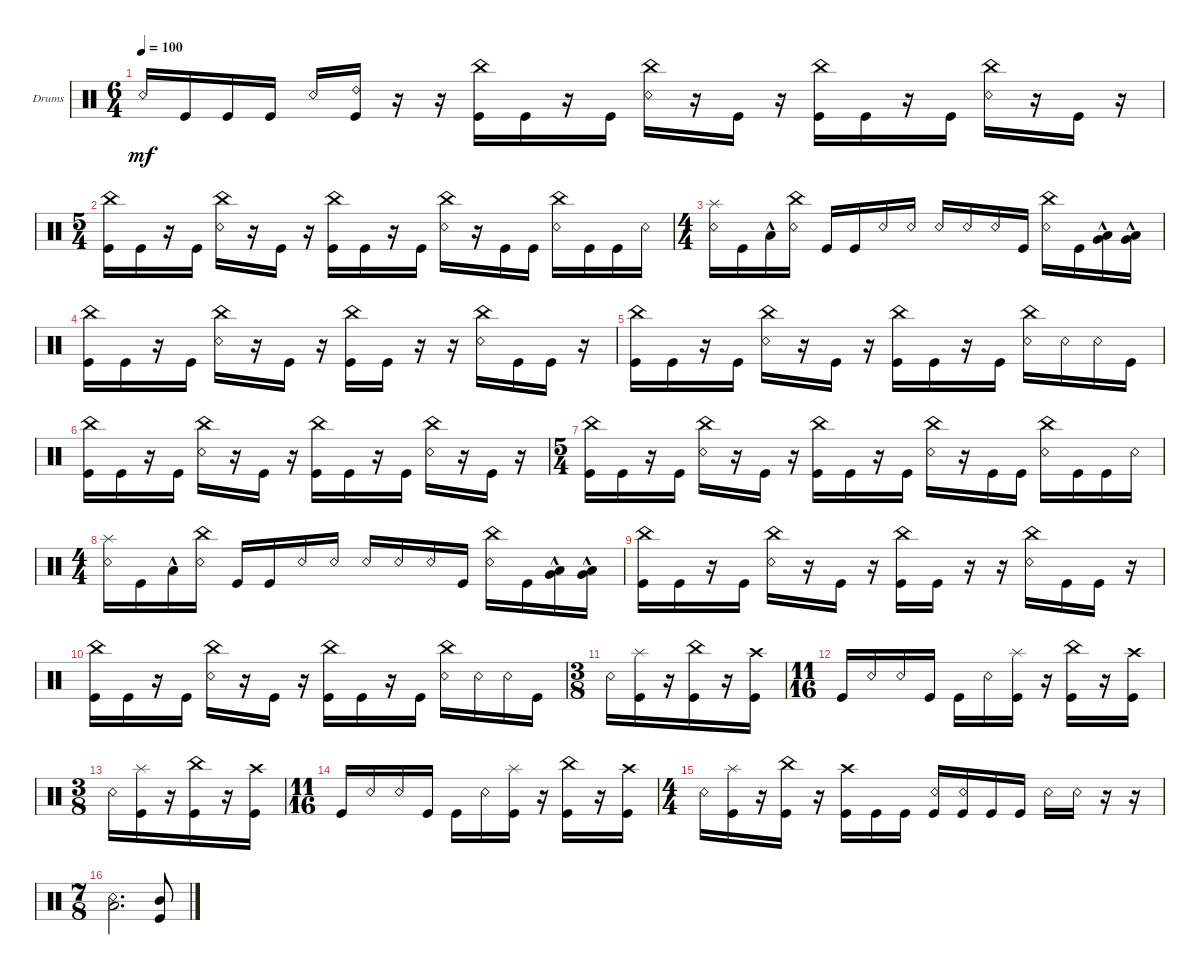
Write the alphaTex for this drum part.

\defaultSystemsLayout 4
\bracketExtendMode groupsimilarinstruments
\firstSystemTrackNameOrientation horizontal
\otherSystemsTrackNameOrientation horizontal
\track ("Drumkit" "Drums") {instrument percussion}
\staff {score}
\articulation defaults
\ts (6 4)
\tempo 100
\clef neutral
\ks c "Snare (rim shot)".16{dy mf} "Kick (hit)".16 "Kick (hit)".16 "Kick (hit)".16 "Snare (rim shot)".16
("Kick (hit)" "Ride (bell) 2").16 r.16 r.16 ("China (hit)" "Kick (hit)").16 "Kick (hit)".16 r.16 "Kick (hit)".16 ("Snare (rim shot)" "China (hit)").16 r.16 "Kick (hit)".16 r.16 ("Kick (hit)" "China (hit)").16 "Kick (hit)".16 r.16 "Kick (hit)".16 ("Snare (rim shot)" "China (hit)").16 r.16 "Kick (hit)".16 r.16 |
\ts (5 4)
("China (hit)" "Kick (hit)").16 "Kick (hit)".16 r.16 "Kick (hit)".16 ("Snare (rim shot)" "China (hit)").16 r.16 "Kick (hit)".16 r.16 ("Kick (hit)" "China (hit)").16 "Kick (hit)".16 r.16 "Kick (hit)".16 ("Snare (rim shot)" "China (hit)").16 r.16 "Kick (hit)".16 "Kick (hit)".16 ("Snare (rim shot)" "China (hit)").16 "Kick (hit)".16 "Kick (hit)".16 "Snare (rim shot)".16 |
\ts (4 4)
("Snare (rim shot)" "Splash (hit)").16 "Kick (hit)".16 "Low Tom (hit)"{hac}.16 ("Snare (rim shot)" "China (hit)").16 "Kick (hit)".16 "Kick (hit)".16 "Snare (rim shot)".16 "Snare (rim shot)".16 "Snare (rim shot)".16 "Snare (rim shot)".16 "Snare (rim shot)".16 "Kick (hit)".16 ("Snare (rim shot)" "China (hit)").16 "Kick (hit)".16 ("Low Tom (hit)"{hac} "Very Low Tom (hit)").16 ("Low Tom (hit)"{hac} "Very Low Tom (hit)"{hac}).16 |
("China (hit)" "Kick (hit)").16 "Kick (hit)".16 r.16 "Kick (hit)".16 ("Snare (rim shot)" "China (hit)").16 r.16 "Kick (hit)".16 r.16 ("Kick (hit)" "China (hit)").16 "Kick (hit)".16 r.16 r.16 ("Snare (rim shot)" "China (hit)").16 "Kick (hit)".16 "Kick (hit)".16 r.16 |
("China (hit)" "Kick (hit)").16 "Kick (hit)".16 r.16 "Kick (hit)".16 ("Snare (rim shot)" "China (hit)").16 r.16 "Kick (hit)".16 r.16 ("Kick (hit)" "China (hit)").16 "Kick (hit)".16 r.16 "Kick (hit)".16 ("Snare (rim shot)" "China (hit)").16 "Snare (rim shot)".16 "Snare (rim shot)".16 "Kick (hit)".16 |
("China (hit)" "Kick (hit)").16 "Kick (hit)".16 r.16 "Kick (hit)".16 ("Snare (rim shot)" "China (hit)").16 r.16 "Kick (hit)".16 r.16 ("Kick (hit)" "China (hit)").16 "Kick (hit)".16 r.16 "Kick (hit)".16 ("Snare (rim shot)" "China (hit)").16 r.16 "Kick (hit)".16 r.16 |
\ts (5 4)
("China (hit)" "Kick (hit)").16 "Kick (hit)".16 r.16 "Kick (hit)".16 ("Snare (rim shot)" "China (hit)").16 r.16 "Kick (hit)".16 r.16 ("Kick (hit)" "China (hit)").16 "Kick (hit)".16 r.16 "Kick (hit)".16 ("Snare (rim shot)" "China (hit)").16 r.16 "Kick (hit)".16 "Kick (hit)".16 ("Snare (rim shot)" "China (hit)").16 "Kick (hit)".16 "Kick (hit)".16 "Snare (rim shot)".16 |
\ts (4 4)
("Snare (rim shot)" "Splash (hit)").16 "Kick (hit)".16 "Low Tom (hit)"{hac}.16 ("Snare (rim shot)" "China (hit)").16 "Kick (hit)".16 "Kick (hit)".16 "Snare (rim shot)".16 "Snare (rim shot)".16 "Snare (rim shot)".16 "Snare (rim shot)".16 "Snare (rim shot)".16 "Kick (hit)".16 ("Snare (rim shot)" "China (hit)").16 "Kick (hit)".16 ("Low Tom (hit)"{hac} "Very Low Tom (hit)").16 ("Low Tom (hit)"{hac} "Very Low Tom (hit)"{hac}).16 |
("China (hit)" "Kick (hit)").16 "Kick (hit)".16 r.16 "Kick (hit)".16 ("Snare (rim shot)" "China (hit)").16 r.16 "Kick (hit)".16 r.16 ("Kick (hit)" "China (hit)").16 "Kick (hit)".16 r.16 r.16 ("Snare (rim shot)" "China (hit)").16 "Kick (hit)".16 "Kick (hit)".16 r.16 |
("China (hit)" "Kick (hit)").16 "Kick (hit)".16 r.16 "Kick (hit)".16 ("Snare (rim shot)" "China (hit)").16 r.16 "Kick (hit)".16 r.16 ("Kick (hit)" "China (hit)").16 "Kick (hit)".16 r.16 "Kick (hit)".16 ("Snare (rim shot)" "China (hit)").16 "Snare (rim shot)".16 "Snare (rim shot)".16 "Kick (hit)".16 |
\ts (3 8)
"Snare (rim shot)".16 ("Kick (hit)" "Splash (hit)").16 r.16 ("Kick (hit)" "China (hit)").16 r.16 ("Kick (hit)" "Crash high (hit)").16 |
\ts (11 16)
"Kick (hit)".16 "Snare (rim shot)".16 "Snare (rim shot)".16 "Kick (hit)".16 "Kick (hit)".16 "Snare (rim shot)".16 ("Kick (hit)" "Splash (hit)").16 r.16 ("Kick (hit)" "China (hit)").16 r.16 ("Kick (hit)" "Crash high (hit)").16 |
\ts (3 8)
"Snare (rim shot)".16 ("Kick (hit)" "Splash (hit)").16 r.16 ("Kick (hit)" "China (hit)").16 r.16 ("Kick (hit)" "Crash high (hit)").16 |
\ts (11 16)
"Kick (hit)".16 "Snare (rim shot)".16 "Snare (rim shot)".16 "Kick (hit)".16 "Kick (hit)".16 "Snare (rim shot)".16 ("Kick (hit)" "Splash (hit)").16 r.16 ("Kick (hit)" "China (hit)").16 r.16 ("Kick (hit)" "Crash high (hit)").16 |
\ts (4 4)
"Snare (rim shot)".16 ("Kick (hit)" "Splash (hit)").16 r.16 ("Kick (hit)" "China (hit)").16 r.16 ("Kick (hit)" "Crash high (hit)").16 "Kick (hit)".16 "Kick (hit)".16 ("Snare (rim shot)" "Kick (hit)").16 ("Snare (rim shot)" "Kick (hit)").16 "Kick (hit)".16 "Kick (hit)".16 "Snare (rim shot)".16 "Snare (rim shot)".16 r.16 r.16 |
\ts (7 8)
("Snare (rim shot)" "Low Tom (hit)").2{d} ("Mid Tom (hit)" "Kick (hit)").8
